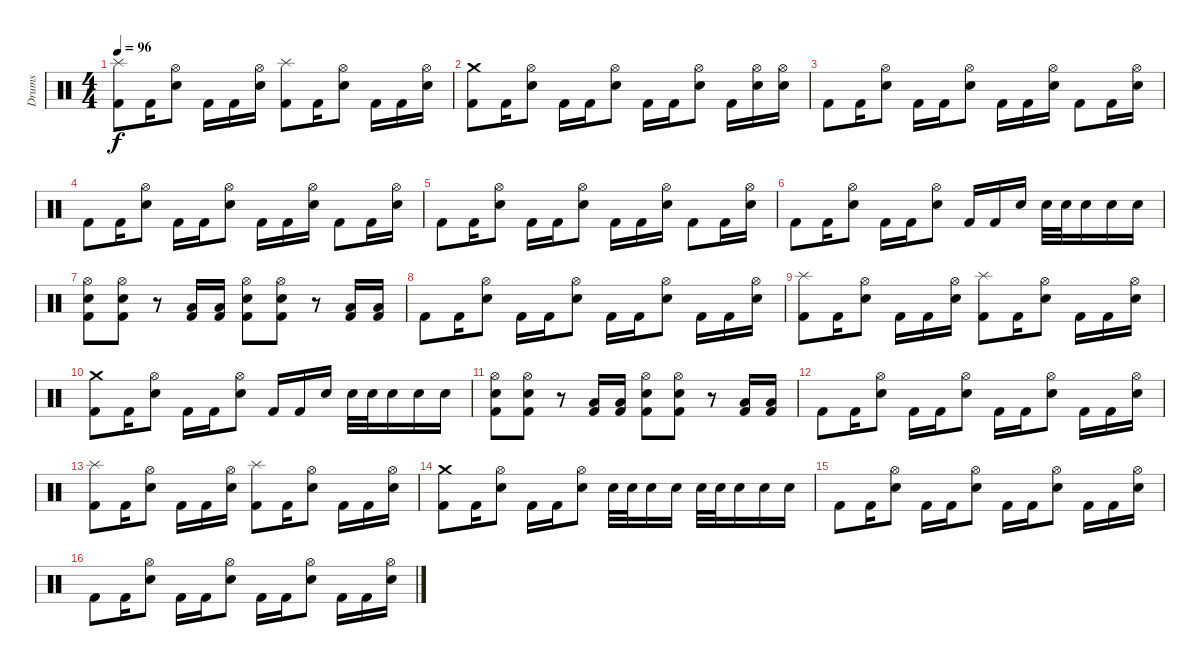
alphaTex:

\track ("Drums" "Drums") {instrument percussion}
\staff {score}
\articulation defaults
\ts (4 4)
\tempo 96
\clef neutral
\ks c
("Kick (hit) 2" "Splash (hit)").8{dy f} "Kick (hit) 2".16 ("Snare (hit) 2" "Hi-Hat (open)").8 "Kick (hit) 2".16 "Kick (hit) 2".16 ("Snare (hit) 2" "Hi-Hat (open)").16 ("Kick (hit) 2" "Splash (hit)").8 "Kick (hit) 2".16 ("Snare (hit) 2" "Hi-Hat (open)").8 "Kick (hit) 2".16 "Kick (hit) 2".16 ("Snare (hit) 2" "Hi-Hat (open)").16 |
("Kick (hit) 2" "Crash medium (hit)").8 "Kick (hit) 2".16 ("Snare (hit) 2" "Hi-Hat (open)").8 "Kick (hit) 2".16 "Kick (hit) 2".16 ("Snare (hit) 2" "Hi-Hat (open)").8 "Kick (hit) 2".16 "Kick (hit) 2".16 ("Snare (hit) 2" "Hi-Hat (open)").8 "Kick (hit) 2".16 ("Snare (hit) 2" "Hi-Hat (open)").16 ("Snare (hit) 2" "Hi-Hat (open)").16 |
"Kick (hit) 2".8 "Kick (hit) 2".16 ("Snare (hit) 2" "Hi-Hat (open)").8 "Kick (hit) 2".16 "Kick (hit) 2".16 ("Snare (hit) 2" "Hi-Hat (open)").8 "Kick (hit) 2".16 "Kick (hit) 2".16 ("Snare (hit) 2" "Hi-Hat (open)").16 "Kick (hit) 2".8 "Kick (hit) 2".16 ("Snare (hit) 2" "Hi-Hat (open)").16 |
"Kick (hit) 2".8 "Kick (hit) 2".16 ("Snare (hit) 2" "Hi-Hat (open)").8 "Kick (hit) 2".16 "Kick (hit) 2".16 ("Snare (hit) 2" "Hi-Hat (open)").8 "Kick (hit) 2".16 "Kick (hit) 2".16 ("Snare (hit) 2" "Hi-Hat (open)").16 "Kick (hit) 2".8 "Kick (hit) 2".16 ("Snare (hit) 2" "Hi-Hat (open)").16 |
"Kick (hit) 2".8 "Kick (hit) 2".16 ("Snare (hit) 2" "Hi-Hat (open)").8 "Kick (hit) 2".16 "Kick (hit) 2".16 ("Snare (hit) 2" "Hi-Hat (open)").8 "Kick (hit) 2".16 "Kick (hit) 2".16 ("Snare (hit) 2" "Hi-Hat (open)").16 "Kick (hit) 2".8 "Kick (hit) 2".16 ("Snare (hit) 2" "Hi-Hat (open)").16 |
"Kick (hit) 2".8 "Kick (hit) 2".16 ("Snare (hit) 2" "Hi-Hat (open)").8 "Kick (hit) 2".16 "Kick (hit) 2".16 ("Snare (hit) 2" "Hi-Hat (open)").8 "Kick (hit) 2".16 "Kick (hit) 2".16 "Snare (hit) 2".16 "Snare (hit) 2".32 "Snare (hit) 2".32 "Snare (hit) 2".16 "Snare (hit) 2".16 "Snare (hit) 2".16 |
("Hi-Hat (open)" "Snare (hit) 2" "Kick (hit) 2").8 ("Hi-Hat (open)" "Snare (hit) 2" "Kick (hit) 2").8 r.8 ("Kick (hit) 2" "Low Tom (hit)").16 ("Kick (hit) 2" "Low Tom (hit)").16 ("Hi-Hat (open)" "Snare (hit) 2" "Kick (hit) 2").8 ("Hi-Hat (open)" "Snare (hit) 2" "Kick (hit) 2").8 r.8 ("Kick (hit) 2" "Low Tom (hit)").16 ("Kick (hit) 2" "Low Tom (hit)").16 |
"Kick (hit) 2".8 "Kick (hit) 2".16 ("Snare (hit) 2" "Hi-Hat (open)").8 "Kick (hit) 2".16 "Kick (hit) 2".16 ("Snare (hit) 2" "Hi-Hat (open)").8 "Kick (hit) 2".16 "Kick (hit) 2".16 ("Snare (hit) 2" "Hi-Hat (open)").8 "Kick (hit) 2".16 "Kick (hit) 2".16 ("Snare (hit) 2" "Hi-Hat (open)").16 |
("Kick (hit) 2" "Splash (hit)").8 "Kick (hit) 2".16 ("Snare (hit) 2" "Hi-Hat (open)").8 "Kick (hit) 2".16 "Kick (hit) 2".16 ("Snare (hit) 2" "Hi-Hat (open)").16 ("Kick (hit) 2" "Splash (hit)").8 "Kick (hit) 2".16 ("Snare (hit) 2" "Hi-Hat (open)").8 "Kick (hit) 2".16 "Kick (hit) 2".16 ("Snare (hit) 2" "Hi-Hat (open)").16 |
("Kick (hit) 2" "Crash medium (hit)").8 "Kick (hit) 2".16 ("Snare (hit) 2" "Hi-Hat (open)").8 "Kick (hit) 2".16 "Kick (hit) 2".16 ("Snare (hit) 2" "Hi-Hat (open)").8 "Kick (hit) 2".16 "Kick (hit) 2".16 "Snare (hit) 2".16 "Snare (hit) 2".32 "Snare (hit) 2".32 "Snare (hit) 2".16 "Snare (hit) 2".16 "Snare (hit) 2".16 |
("Hi-Hat (open)" "Snare (hit) 2" "Kick (hit) 2").8 ("Hi-Hat (open)" "Snare (hit) 2" "Kick (hit) 2").8 r.8 ("Kick (hit) 2" "Low Tom (hit)").16 ("Kick (hit) 2" "Low Tom (hit)").16 ("Hi-Hat (open)" "Snare (hit) 2" "Kick (hit) 2").8 ("Hi-Hat (open)" "Snare (hit) 2" "Kick (hit) 2").8 r.8 ("Kick (hit) 2" "Low Tom (hit)").16 ("Kick (hit) 2" "Low Tom (hit)").16 |
"Kick (hit) 2".8 "Kick (hit) 2".16 ("Snare (hit) 2" "Hi-Hat (open)").8 "Kick (hit) 2".16 "Kick (hit) 2".16 ("Snare (hit) 2" "Hi-Hat (open)").8 "Kick (hit) 2".16 "Kick (hit) 2".16 ("Snare (hit) 2" "Hi-Hat (open)").8 "Kick (hit) 2".16 "Kick (hit) 2".16 ("Snare (hit) 2" "Hi-Hat (open)").16 |
("Kick (hit) 2" "Splash (hit)").8 "Kick (hit) 2".16 ("Snare (hit) 2" "Hi-Hat (open)").8 "Kick (hit) 2".16 "Kick (hit) 2".16 ("Snare (hit) 2" "Hi-Hat (open)").16 ("Kick (hit) 2" "Splash (hit)").8 "Kick (hit) 2".16 ("Snare (hit) 2" "Hi-Hat (open)").8 "Kick (hit) 2".16 "Kick (hit) 2".16 ("Snare (hit) 2" "Hi-Hat (open)").16 |
("Kick (hit) 2" "Crash medium (hit)").8 "Kick (hit) 2".16 ("Snare (hit) 2" "Hi-Hat (open)").8 "Kick (hit) 2".16 "Kick (hit) 2".16 ("Snare (hit) 2" "Hi-Hat (open)").8 "Snare (hit) 2".32 "Snare (hit) 2".32 "Snare (hit) 2".16 "Snare (hit) 2".16 "Snare (hit) 2".32 "Snare (hit) 2".32 "Snare (hit) 2".16 "Snare (hit) 2".16 "Snare (hit) 2".16 |
"Kick (hit) 2".8 "Kick (hit) 2".16 ("Snare (hit) 2" "Hi-Hat (open)").8 "Kick (hit) 2".16 "Kick (hit) 2".16 ("Snare (hit) 2" "Hi-Hat (open)").8 "Kick (hit) 2".16 "Kick (hit) 2".16 ("Snare (hit) 2" "Hi-Hat (open)").8 "Kick (hit) 2".16 "Kick (hit) 2".16 ("Snare (hit) 2" "Hi-Hat (open)").16 |
"Kick (hit) 2".8 "Kick (hit) 2".16 ("Snare (hit) 2" "Hi-Hat (open)").8 "Kick (hit) 2".16 "Kick (hit) 2".16 ("Snare (hit) 2" "Hi-Hat (open)").8 "Kick (hit) 2".16 "Kick (hit) 2".16 ("Snare (hit) 2" "Hi-Hat (open)").8 "Kick (hit) 2".16 "Kick (hit) 2".16 ("Snare (hit) 2" "Hi-Hat (open)").16
